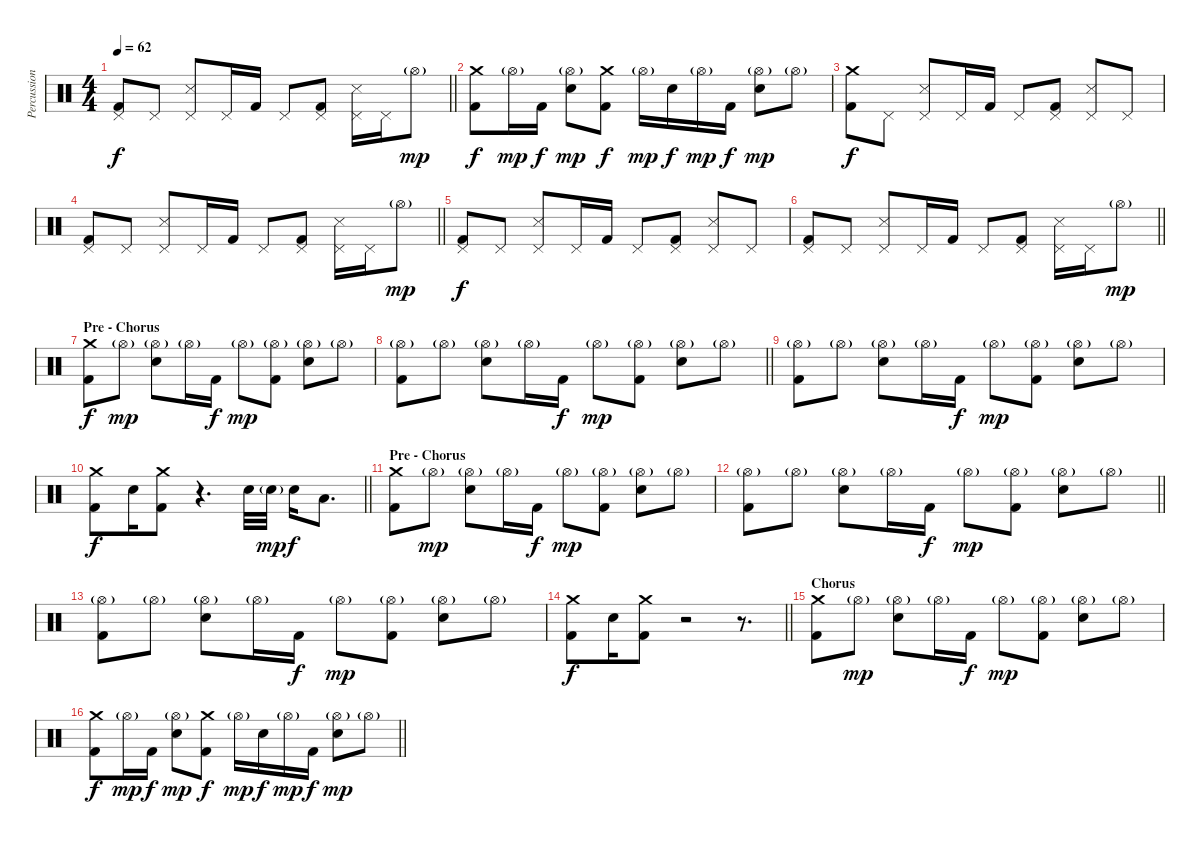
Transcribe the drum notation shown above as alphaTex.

\track ("Percussion" "Percussion") {instrument percussion}
\staff {score}
\articulation defaults
\ts (4 4)
\tempo 62
\clef neutral
\barLineRight lightlight
\ks c
("Pedal Hi-Hat (hit)" "Kick (hit) 2").8{dy f} "Pedal Hi-Hat (hit)".8 ("Pedal Hi-Hat (hit)" "Snare (side stick) 3").8 "Pedal Hi-Hat (hit)".16 "Kick (hit) 2".16 "Pedal Hi-Hat (hit)".8 ("Pedal Hi-Hat (hit)" "Kick (hit) 2").8 ("Pedal Hi-Hat (hit)" "Snare (side stick) 3").16 "Pedal Hi-Hat (hit)".16 "Hi-Hat (open)"{g}.8{dy mp} |
("Crash medium (hit)" "Kick (hit) 2").8{dy f} "Hi-Hat (open)"{g}.16{dy mp} "Kick (hit) 2".16{dy f} ("Hi-Hat (open)"{g} "Electric Snare (hit)").8{dy mp} ("Crash medium (hit)" "Kick (hit) 2").8{dy f} "Hi-Hat (open)"{g}.16{dy mp} "Electric Snare (hit)".16{dy f} "Hi-Hat (open)"{g}.16{dy mp} "Kick (hit) 2".16{dy f} ("Hi-Hat (open)"{g} "Electric Snare (hit)").8{dy mp} "Hi-Hat (open)"{g}.8 |
("Crash medium (hit)" "Kick (hit) 2").8{dy f} "Pedal Hi-Hat (hit)".8 ("Pedal Hi-Hat (hit)" "Snare (side stick) 3").8 "Pedal Hi-Hat (hit)".16 "Kick (hit) 2".16 "Pedal Hi-Hat (hit)".8 ("Pedal Hi-Hat (hit)" "Kick (hit) 2").8 ("Pedal Hi-Hat (hit)" "Snare (side stick) 3").8 "Pedal Hi-Hat (hit)".8 |
\barLineRight lightlight
("Pedal Hi-Hat (hit)" "Kick (hit) 2").8 "Pedal Hi-Hat (hit)".8 ("Pedal Hi-Hat (hit)" "Snare (side stick) 3").8 "Pedal Hi-Hat (hit)".16 "Kick (hit) 2".16 "Pedal Hi-Hat (hit)".8 ("Pedal Hi-Hat (hit)" "Kick (hit) 2").8 ("Pedal Hi-Hat (hit)" "Snare (side stick) 3").16 "Pedal Hi-Hat (hit)".16 "Hi-Hat (open)"{g}.8{dy mp} |
("Pedal Hi-Hat (hit)" "Kick (hit) 2").8{dy f} "Pedal Hi-Hat (hit)".8 ("Pedal Hi-Hat (hit)" "Snare (side stick) 3").8 "Pedal Hi-Hat (hit)".16 "Kick (hit) 2".16 "Pedal Hi-Hat (hit)".8 ("Pedal Hi-Hat (hit)" "Kick (hit) 2").8 ("Pedal Hi-Hat (hit)" "Snare (side stick) 3").8 "Pedal Hi-Hat (hit)".8 |
\barLineRight lightlight
("Pedal Hi-Hat (hit)" "Kick (hit) 2").8 "Pedal Hi-Hat (hit)".8 ("Pedal Hi-Hat (hit)" "Snare (side stick) 3").8 "Pedal Hi-Hat (hit)".16 "Kick (hit) 2".16 "Pedal Hi-Hat (hit)".8 ("Pedal Hi-Hat (hit)" "Kick (hit) 2").8 ("Pedal Hi-Hat (hit)" "Snare (side stick) 3").16 "Pedal Hi-Hat (hit)".16 "Hi-Hat (open)"{g}.8{dy mp} |
\section ("" "Pre - Chorus")
("Crash medium (hit)" "Kick (hit) 2").8{dy f} "Hi-Hat (open)"{g}.8{dy mp} ("Hi-Hat (open)"{g} "Electric Snare (hit)").8 "Hi-Hat (open)"{g}.16 "Kick (hit) 2".16{dy f} "Hi-Hat (open)"{g}.8{dy mp} ("Hi-Hat (open)"{g} "Kick (hit) 2").8 ("Hi-Hat (open)"{g} "Electric Snare (hit)").8 "Hi-Hat (open)"{g}.8 |
\barLineRight lightlight
("Hi-Hat (open)"{g} "Kick (hit) 2").8 "Hi-Hat (open)"{g}.8 ("Hi-Hat (open)"{g} "Electric Snare (hit)").8 "Hi-Hat (open)"{g}.16 "Kick (hit) 2".16{dy f} "Hi-Hat (open)"{g}.8{dy mp} ("Hi-Hat (open)"{g} "Kick (hit) 2").8 ("Hi-Hat (open)"{g} "Electric Snare (hit)").8 "Hi-Hat (open)"{g}.8 |
("Hi-Hat (open)"{g} "Kick (hit) 2").8 "Hi-Hat (open)"{g}.8 ("Hi-Hat (open)"{g} "Electric Snare (hit)").8 "Hi-Hat (open)"{g}.16 "Kick (hit) 2".16{dy f} "Hi-Hat (open)"{g}.8{dy mp} ("Hi-Hat (open)"{g} "Kick (hit) 2").8 ("Hi-Hat (open)"{g} "Electric Snare (hit)").8 "Hi-Hat (open)"{g}.8 |
\barLineRight lightlight
("Crash medium (hit)" "Kick (hit) 2").8{dy f} "Electric Snare (hit)".16 ("Crash medium (hit)" "Kick (hit) 2").8 r.4{d} "Electric Snare (hit)".32 "Electric Snare (hit)"{g}.32{dy mp} "Electric Snare (hit)".16{dy f} "Low Tom (hit)".8{d} |
\section ("" "Pre - Chorus")
("Crash medium (hit)" "Kick (hit) 2").8 "Hi-Hat (open)"{g}.8{dy mp} ("Hi-Hat (open)"{g} "Electric Snare (hit)").8 "Hi-Hat (open)"{g}.16 "Kick (hit) 2".16{dy f} "Hi-Hat (open)"{g}.8{dy mp} ("Hi-Hat (open)"{g} "Kick (hit) 2").8 ("Hi-Hat (open)"{g} "Electric Snare (hit)").8 "Hi-Hat (open)"{g}.8 |
\barLineRight lightlight
("Hi-Hat (open)"{g} "Kick (hit) 2").8 "Hi-Hat (open)"{g}.8 ("Hi-Hat (open)"{g} "Electric Snare (hit)").8 "Hi-Hat (open)"{g}.16 "Kick (hit) 2".16{dy f} "Hi-Hat (open)"{g}.8{dy mp} ("Hi-Hat (open)"{g} "Kick (hit) 2").8 ("Hi-Hat (open)"{g} "Electric Snare (hit)").8 "Hi-Hat (open)"{g}.8 |
("Hi-Hat (open)"{g} "Kick (hit) 2").8 "Hi-Hat (open)"{g}.8 ("Hi-Hat (open)"{g} "Electric Snare (hit)").8 "Hi-Hat (open)"{g}.16 "Kick (hit) 2".16{dy f} "Hi-Hat (open)"{g}.8{dy mp} ("Hi-Hat (open)"{g} "Kick (hit) 2").8 ("Hi-Hat (open)"{g} "Electric Snare (hit)").8 "Hi-Hat (open)"{g}.8 |
\barLineRight lightlight
("Crash medium (hit)" "Kick (hit) 2").8{dy f} "Electric Snare (hit)".16 ("Crash medium (hit)" "Kick (hit) 2").8 r.2 r.8{d} |
\section ("" "Chorus")
("Crash medium (hit)" "Kick (hit) 2").8 "Hi-Hat (open)"{g}.8{dy mp} ("Hi-Hat (open)"{g} "Electric Snare (hit)").8 "Hi-Hat (open)"{g}.16 "Kick (hit) 2".16{dy f} "Hi-Hat (open)"{g}.8{dy mp} ("Hi-Hat (open)"{g} "Kick (hit) 2").8 ("Hi-Hat (open)"{g} "Electric Snare (hit)").8 "Hi-Hat (open)"{g}.8 |
\barLineRight lightlight
("Crash medium (hit)" "Kick (hit) 2").8{dy f} "Hi-Hat (open)"{g}.16{dy mp} "Kick (hit) 2".16{dy f} ("Hi-Hat (open)"{g} "Electric Snare (hit)").8{dy mp} ("Crash medium (hit)" "Kick (hit) 2").8{dy f} "Hi-Hat (open)"{g}.16{dy mp} "Electric Snare (hit)".16{dy f} "Hi-Hat (open)"{g}.16{dy mp} "Kick (hit) 2".16{dy f} ("Hi-Hat (open)"{g} "Electric Snare (hit)").8{dy mp} "Hi-Hat (open)"{g}.8
